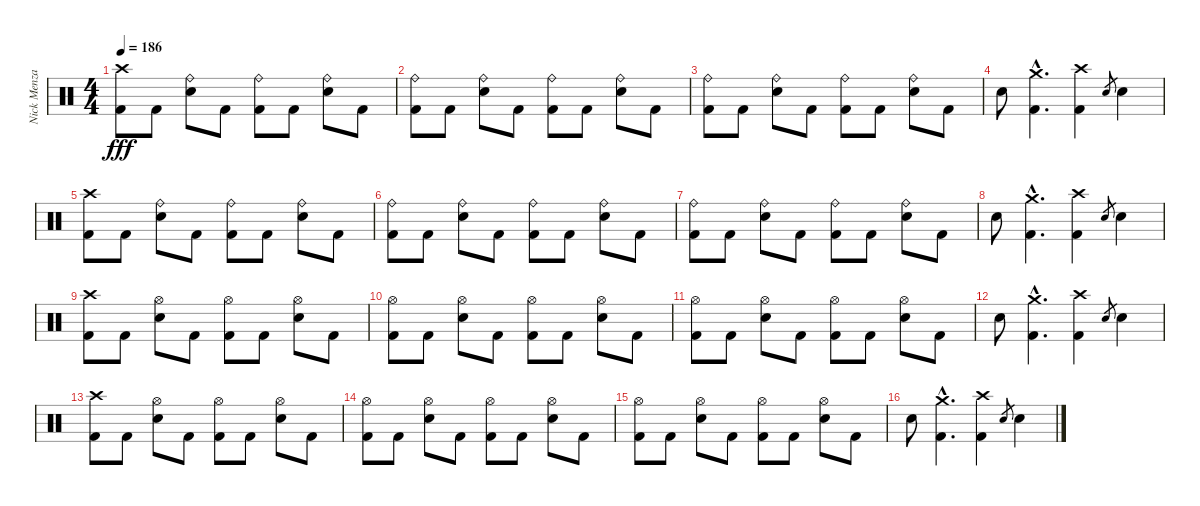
\track ("Nick Menza [Drums]" "Nick Menza") {instrument percussion}
\staff {score}
\articulation defaults
\ts (4 4)
\tempo 186
\clef neutral
\ks c
("Kick (hit) 2" "Crash high (hit)").8{dy fff} "Kick (hit) 2".8 ("Snare (hit) 2" "Ride (bell)").8 "Kick (hit) 2".8 ("Kick (hit) 2" "Ride (bell)").8 "Kick (hit) 2".8 ("Snare (hit) 2" "Ride (bell)").8 "Kick (hit) 2".8 |
("Kick (hit) 2" "Ride (bell)").8 "Kick (hit) 2".8 ("Snare (hit) 2" "Ride (bell)").8 "Kick (hit) 2".8 ("Kick (hit) 2" "Ride (bell)").8 "Kick (hit) 2".8 ("Snare (hit) 2" "Ride (bell)").8 "Kick (hit) 2".8 |
("Kick (hit) 2" "Ride (bell)").8 "Kick (hit) 2".8 ("Snare (hit) 2" "Ride (bell)").8 "Kick (hit) 2".8 ("Kick (hit) 2" "Ride (bell)").8 "Kick (hit) 2".8 ("Snare (hit) 2" "Ride (bell)").8 "Kick (hit) 2".8 |
"Snare (hit) 2".8 ("Kick (hit) 2"{hac} "Crash medium (hit)"{hac}).4{d} ("Kick (hit) 2" "Crash high (hit)").4 "Snare (hit) 2".8{gr} "Snare (hit) 2".4 |
("Kick (hit) 2" "Crash high (hit)").8 "Kick (hit) 2".8 ("Snare (hit) 2" "Ride (bell)").8 "Kick (hit) 2".8 ("Kick (hit) 2" "Ride (bell)").8 "Kick (hit) 2".8 ("Snare (hit) 2" "Ride (bell)").8 "Kick (hit) 2".8 |
("Kick (hit) 2" "Ride (bell)").8 "Kick (hit) 2".8 ("Snare (hit) 2" "Ride (bell)").8 "Kick (hit) 2".8 ("Kick (hit) 2" "Ride (bell)").8 "Kick (hit) 2".8 ("Snare (hit) 2" "Ride (bell)").8 "Kick (hit) 2".8 |
("Kick (hit) 2" "Ride (bell)").8 "Kick (hit) 2".8 ("Snare (hit) 2" "Ride (bell)").8 "Kick (hit) 2".8 ("Kick (hit) 2" "Ride (bell)").8 "Kick (hit) 2".8 ("Snare (hit) 2" "Ride (bell)").8 "Kick (hit) 2".8 |
"Snare (hit) 2".8 ("Kick (hit) 2"{hac} "Crash medium (hit)"{hac}).4{d} ("Kick (hit) 2" "Crash high (hit)").4 "Snare (hit) 2".8{gr} "Snare (hit) 2".4 |
("Kick (hit) 2" "Crash high (hit)").8 "Kick (hit) 2".8 ("Snare (hit) 2" "Hi-Hat (open)").8 "Kick (hit) 2".8 ("Kick (hit) 2" "Hi-Hat (open)").8 "Kick (hit) 2".8 ("Snare (hit) 2" "Hi-Hat (open)").8 "Kick (hit) 2".8 |
("Kick (hit) 2" "Hi-Hat (open)").8 "Kick (hit) 2".8 ("Snare (hit) 2" "Hi-Hat (open)").8 "Kick (hit) 2".8 ("Kick (hit) 2" "Hi-Hat (open)").8 "Kick (hit) 2".8 ("Snare (hit) 2" "Hi-Hat (open)").8 "Kick (hit) 2".8 |
("Kick (hit) 2" "Hi-Hat (open)").8 "Kick (hit) 2".8 ("Snare (hit) 2" "Hi-Hat (open)").8 "Kick (hit) 2".8 ("Kick (hit) 2" "Hi-Hat (open)").8 "Kick (hit) 2".8 ("Snare (hit) 2" "Hi-Hat (open)").8 "Kick (hit) 2".8 |
"Snare (hit) 2".8 ("Kick (hit) 2"{hac} "Crash medium (hit)"{hac}).4{d} ("Kick (hit) 2" "Crash high (hit)").4 "Snare (hit) 2".8{gr} "Snare (hit) 2".4 |
("Kick (hit) 2" "Crash high (hit)").8 "Kick (hit) 2".8 ("Snare (hit) 2" "Hi-Hat (open)").8 "Kick (hit) 2".8 ("Kick (hit) 2" "Hi-Hat (open)").8 "Kick (hit) 2".8 ("Snare (hit) 2" "Hi-Hat (open)").8 "Kick (hit) 2".8 |
("Kick (hit) 2" "Hi-Hat (open)").8 "Kick (hit) 2".8 ("Snare (hit) 2" "Hi-Hat (open)").8 "Kick (hit) 2".8 ("Kick (hit) 2" "Hi-Hat (open)").8 "Kick (hit) 2".8 ("Snare (hit) 2" "Hi-Hat (open)").8 "Kick (hit) 2".8 |
("Kick (hit) 2" "Hi-Hat (open)").8 "Kick (hit) 2".8 ("Snare (hit) 2" "Hi-Hat (open)").8 "Kick (hit) 2".8 ("Kick (hit) 2" "Hi-Hat (open)").8 "Kick (hit) 2".8 ("Snare (hit) 2" "Hi-Hat (open)").8 "Kick (hit) 2".8 |
"Snare (hit) 2".8 ("Kick (hit) 2"{hac} "Crash medium (hit)"{hac}).4{d} ("Kick (hit) 2" "Crash high (hit)").4 "Snare (hit) 2".8{gr} "Snare (hit) 2".4
